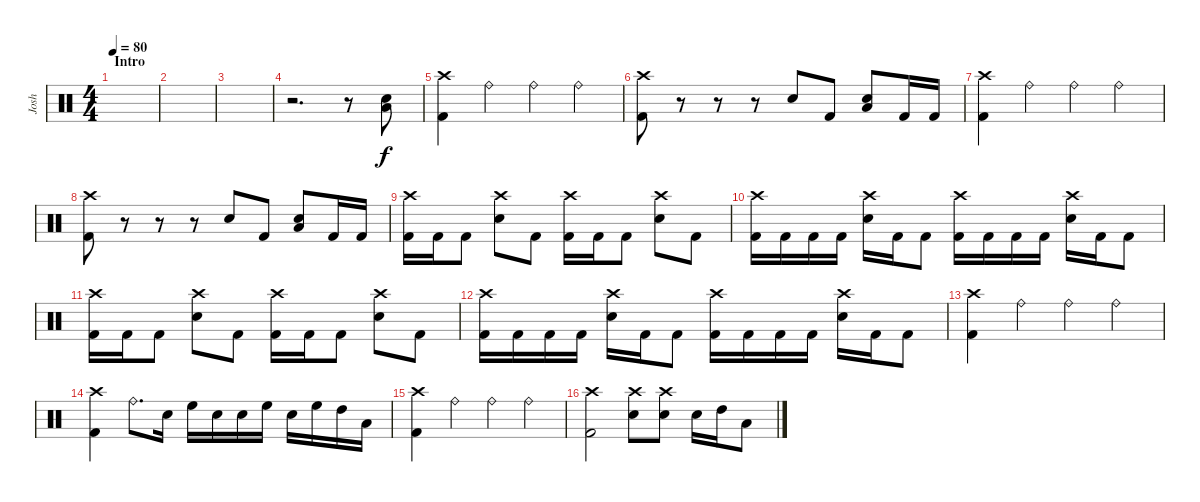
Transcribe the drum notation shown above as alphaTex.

\track ("Josh" "Josh") {instrument percussion}
\staff {score}
\articulation defaults
\ts (4 4)
\section ("" "Intro")
\tempo 80
\clef neutral
\ks c
|
|
|
r.2{d} r.8 ("Electric Snare (hit)" "Low Floor Tom (hit)").8 |
("Crash high (hit)" "Kick (hit) 2").4 "Ride (bell)".4 "Ride (bell)".4 "Ride (bell)".4 |
("Crash high (hit)" "Kick (hit) 2").8 r.8 r.8 r.8 "Electric Snare (hit)".8 "Kick (hit) 2".8 ("Electric Snare (hit)" "Low Floor Tom (hit)").8 "Kick (hit) 2".16 "Kick (hit) 2".16 |
("Crash high (hit)" "Kick (hit) 2").4 "Ride (bell)".4 "Ride (bell)".4 "Ride (bell)".4 |
("Crash high (hit)" "Kick (hit) 2").8 r.8 r.8 r.8 "Electric Snare (hit)".8 "Kick (hit) 2".8 ("Electric Snare (hit)" "Low Floor Tom (hit)").8 "Kick (hit) 2".16 "Kick (hit) 2".16 |
("Crash high (hit)" "Kick (hit) 2").16 "Kick (hit) 2".16 "Kick (hit) 2".8 ("Crash high (hit)" "Electric Snare (hit)").8 "Kick (hit) 2".8 ("Crash high (hit)" "Kick (hit) 2").16 "Kick (hit) 2".16 "Kick (hit) 2".8 ("Crash high (hit)" "Electric Snare (hit)").8 "Kick (hit) 2".8 |
("Crash high (hit)" "Kick (hit) 2").16 "Kick (hit) 2".16 "Kick (hit) 2".16 "Kick (hit) 2".16 ("Crash high (hit)" "Electric Snare (hit)").16 "Kick (hit) 2".16 "Kick (hit) 2".8 ("Crash high (hit)" "Kick (hit) 2").16 "Kick (hit) 2".16 "Kick (hit) 2".16 "Kick (hit) 2".16 ("Crash high (hit)" "Electric Snare (hit)").16 "Kick (hit) 2".16 "Kick (hit) 2".8 |
("Crash high (hit)" "Kick (hit) 2").16 "Kick (hit) 2".16 "Kick (hit) 2".8 ("Crash high (hit)" "Electric Snare (hit)").8 "Kick (hit) 2".8 ("Crash high (hit)" "Kick (hit) 2").16 "Kick (hit) 2".16 "Kick (hit) 2".8 ("Crash high (hit)" "Electric Snare (hit)").8 "Kick (hit) 2".8 |
("Crash high (hit)" "Kick (hit) 2").16 "Kick (hit) 2".16 "Kick (hit) 2".16 "Kick (hit) 2".16 ("Crash high (hit)" "Electric Snare (hit)").16 "Kick (hit) 2".16 "Kick (hit) 2".8 ("Crash high (hit)" "Kick (hit) 2").16 "Kick (hit) 2".16 "Kick (hit) 2".16 "Kick (hit) 2".16 ("Crash high (hit)" "Electric Snare (hit)").16 "Kick (hit) 2".16 "Kick (hit) 2".8 |
("Crash high (hit)" "Kick (hit) 2").4 "Ride (bell)".4 "Ride (bell)".4 "Ride (bell)".4 |
("Crash high (hit)" "Kick (hit) 2").4 "Ride (bell)".8{d} "Electric Snare (hit)".16 "High Floor Tom (hit)".16 "Electric Snare (hit)".16 "Electric Snare (hit)".16 "High Floor Tom (hit)".16 "Electric Snare (hit)".16 "High Floor Tom (hit)".16 "High Tom (hit)".16 "Low Floor Tom (hit)".16 |
("Crash high (hit)" "Kick (hit) 2").4 "Ride (bell)".4 "Ride (bell)".4 "Ride (bell)".4 |
("Crash high (hit)" "Kick (hit) 2").2 ("Crash high (hit)" "Electric Snare (hit)").8 ("Crash high (hit)" "Electric Snare (hit)").8 "Electric Snare (hit)".16 "High Tom (hit)".16 "Low Floor Tom (hit)".8
